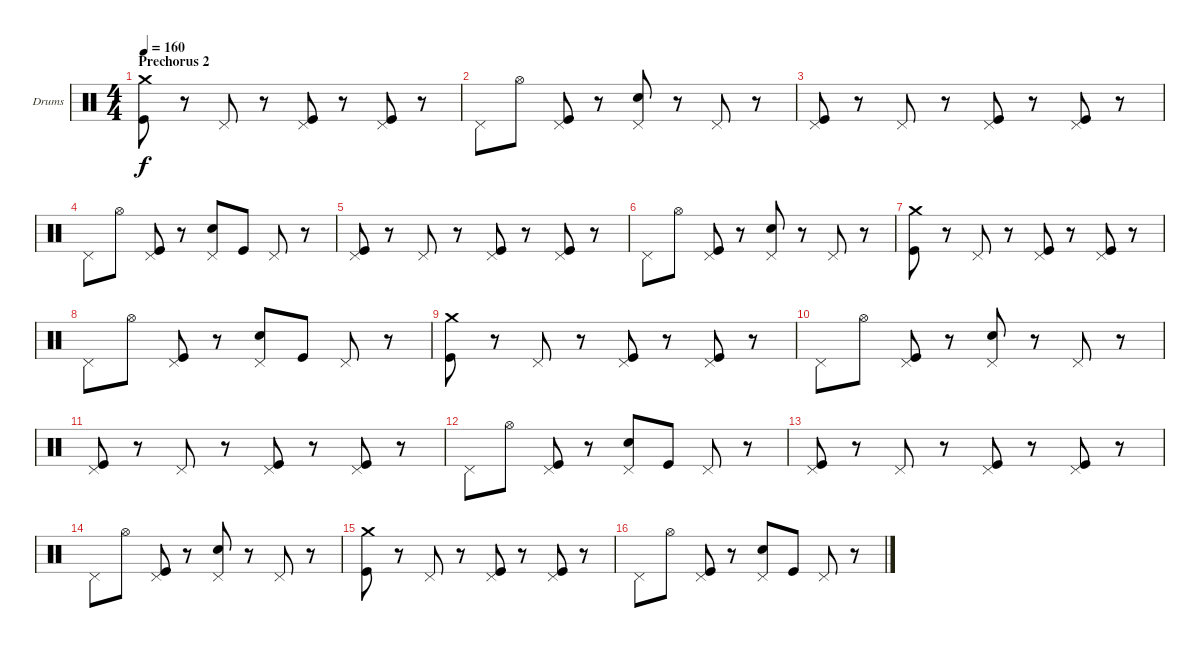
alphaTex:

\bracketExtendMode groupsimilarinstruments
\firstSystemTrackNameOrientation horizontal
\otherSystemsTrackNameOrientation horizontal
\track ("Drumkit" "Drums") {instrument percussion}
\staff {score}
\articulation defaults
\ts (4 4)
\section ("" "Prechorus 2")
\tempo 160
\clef neutral
\ks c
("Crash medium (hit)" "Kick (hit)").8{dy f} r.8 "Pedal Hi-Hat (hit)".8 r.8 ("Pedal Hi-Hat (hit)" "Kick (hit)").8 r.8 ("Pedal Hi-Hat (hit)" "Kick (hit)").8 r.8 |
"Pedal Hi-Hat (hit)".8 "Hi-Hat (open)".8 ("Pedal Hi-Hat (hit)" "Kick (hit)").8 r.8 ("Pedal Hi-Hat (hit)" "Snare (hit) 2").8 r.8 "Pedal Hi-Hat (hit)".8 r.8 |
("Pedal Hi-Hat (hit)" "Kick (hit)").8 r.8 "Pedal Hi-Hat (hit)".8 r.8 ("Pedal Hi-Hat (hit)" "Kick (hit)").8 r.8 ("Pedal Hi-Hat (hit)" "Kick (hit)").8 r.8 |
"Pedal Hi-Hat (hit)".8 "Hi-Hat (open)".8 ("Pedal Hi-Hat (hit)" "Kick (hit)").8 r.8 ("Pedal Hi-Hat (hit)" "Snare (hit) 2").8 "Kick (hit)".8 "Pedal Hi-Hat (hit)".8 r.8 |
("Pedal Hi-Hat (hit)" "Kick (hit)").8 r.8 "Pedal Hi-Hat (hit)".8 r.8 ("Pedal Hi-Hat (hit)" "Kick (hit)").8 r.8 ("Pedal Hi-Hat (hit)" "Kick (hit)").8 r.8 |
"Pedal Hi-Hat (hit)".8 "Hi-Hat (open)".8 ("Pedal Hi-Hat (hit)" "Kick (hit)").8 r.8 ("Pedal Hi-Hat (hit)" "Snare (hit) 2").8 r.8 "Pedal Hi-Hat (hit)".8 r.8 |
("Crash medium (hit)" "Kick (hit)").8 r.8 "Pedal Hi-Hat (hit)".8 r.8 ("Pedal Hi-Hat (hit)" "Kick (hit)").8 r.8 ("Pedal Hi-Hat (hit)" "Kick (hit)").8 r.8 |
"Pedal Hi-Hat (hit)".8 "Hi-Hat (open)".8 ("Pedal Hi-Hat (hit)" "Kick (hit)").8 r.8 ("Pedal Hi-Hat (hit)" "Snare (hit) 2").8 "Kick (hit)".8 "Pedal Hi-Hat (hit)".8 r.8 |
("Crash medium (hit)" "Kick (hit)").8 r.8 "Pedal Hi-Hat (hit)".8 r.8 ("Pedal Hi-Hat (hit)" "Kick (hit)").8 r.8 ("Pedal Hi-Hat (hit)" "Kick (hit)").8 r.8 |
"Pedal Hi-Hat (hit)".8 "Hi-Hat (open)".8 ("Pedal Hi-Hat (hit)" "Kick (hit)").8 r.8 ("Pedal Hi-Hat (hit)" "Snare (hit) 2").8 r.8 "Pedal Hi-Hat (hit)".8 r.8 |
("Pedal Hi-Hat (hit)" "Kick (hit)").8 r.8 "Pedal Hi-Hat (hit)".8 r.8 ("Pedal Hi-Hat (hit)" "Kick (hit)").8 r.8 ("Pedal Hi-Hat (hit)" "Kick (hit)").8 r.8 |
"Pedal Hi-Hat (hit)".8 "Hi-Hat (open)".8 ("Pedal Hi-Hat (hit)" "Kick (hit)").8 r.8 ("Pedal Hi-Hat (hit)" "Snare (hit) 2").8 "Kick (hit)".8 "Pedal Hi-Hat (hit)".8 r.8 |
("Pedal Hi-Hat (hit)" "Kick (hit)").8 r.8 "Pedal Hi-Hat (hit)".8 r.8 ("Pedal Hi-Hat (hit)" "Kick (hit)").8 r.8 ("Pedal Hi-Hat (hit)" "Kick (hit)").8 r.8 |
"Pedal Hi-Hat (hit)".8 "Hi-Hat (open)".8 ("Pedal Hi-Hat (hit)" "Kick (hit)").8 r.8 ("Pedal Hi-Hat (hit)" "Snare (hit) 2").8 r.8 "Pedal Hi-Hat (hit)".8 r.8 |
("Crash medium (hit)" "Kick (hit)").8 r.8 "Pedal Hi-Hat (hit)".8 r.8 ("Pedal Hi-Hat (hit)" "Kick (hit)").8 r.8 ("Pedal Hi-Hat (hit)" "Kick (hit)").8 r.8 |
"Pedal Hi-Hat (hit)".8 "Hi-Hat (open)".8 ("Pedal Hi-Hat (hit)" "Kick (hit)").8 r.8 ("Pedal Hi-Hat (hit)" "Snare (hit) 2").8 "Kick (hit)".8 "Pedal Hi-Hat (hit)".8 r.8
